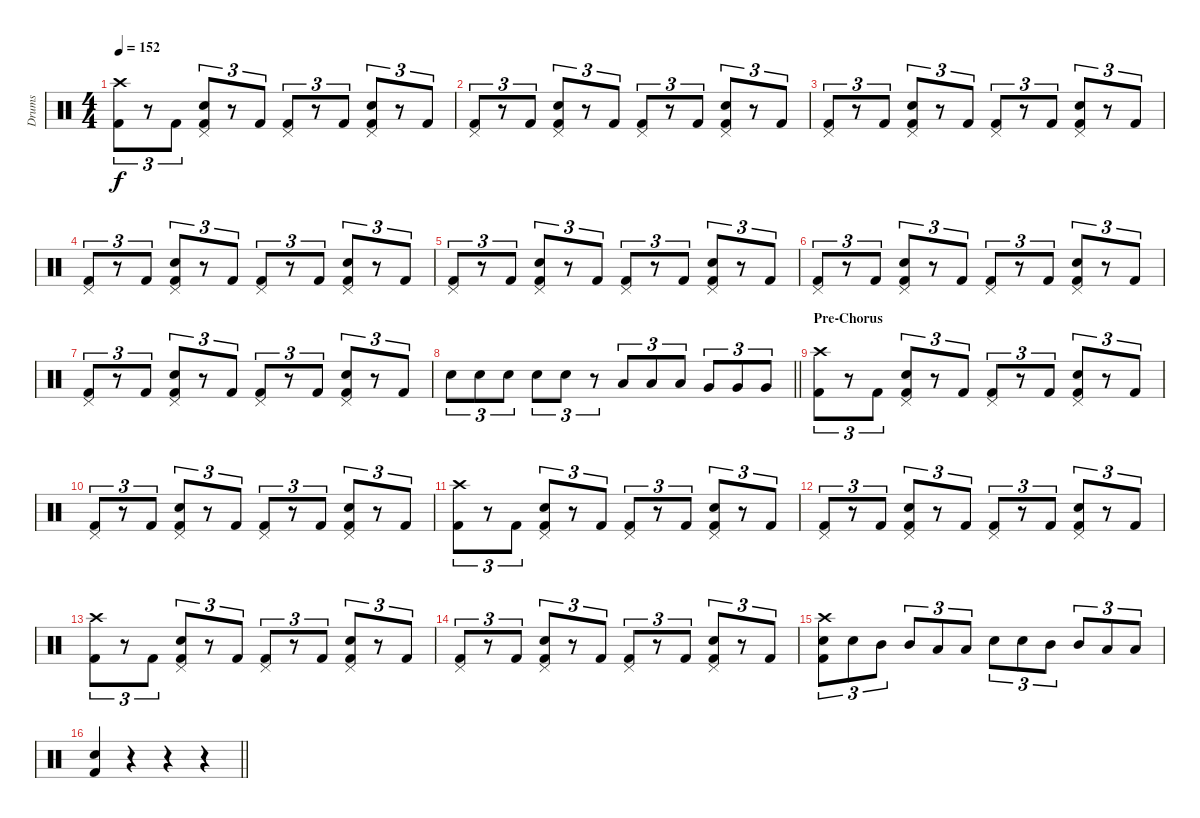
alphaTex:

\track ("Drums" "Drums") {instrument percussion}
\staff {score}
\articulation defaults
\ts (4 4)
\tempo 152
\clef neutral
\ks c
("Crash high (hit)" "Kick (hit) 2").8{tu (3 2) dy f} r.8{tu (3 2)} "Kick (hit) 2".8{tu (3 2)} ("Pedal Hi-Hat (hit)" "Snare (hit) 2" "Kick (hit) 2").8{tu (3 2)} r.8{tu (3 2)} "Kick (hit) 2".8{tu (3 2)} ("Pedal Hi-Hat (hit)" "Kick (hit) 2").8{tu (3 2)} r.8{tu (3 2)} "Kick (hit) 2".8{tu (3 2)} ("Pedal Hi-Hat (hit)" "Snare (hit) 2" "Kick (hit) 2").8{tu (3 2)} r.8{tu (3 2)} "Kick (hit) 2".8{tu (3 2)} |
("Pedal Hi-Hat (hit)" "Kick (hit) 2").8{tu (3 2)} r.8{tu (3 2)} "Kick (hit) 2".8{tu (3 2)} ("Pedal Hi-Hat (hit)" "Snare (hit) 2" "Kick (hit) 2").8{tu (3 2)} r.8{tu (3 2)} "Kick (hit) 2".8{tu (3 2)} ("Pedal Hi-Hat (hit)" "Kick (hit) 2").8{tu (3 2)} r.8{tu (3 2)} "Kick (hit) 2".8{tu (3 2)} ("Pedal Hi-Hat (hit)" "Snare (hit) 2" "Kick (hit) 2").8{tu (3 2)} r.8{tu (3 2)} "Kick (hit) 2".8{tu (3 2)} |
("Pedal Hi-Hat (hit)" "Kick (hit) 2").8{tu (3 2)} r.8{tu (3 2)} "Kick (hit) 2".8{tu (3 2)} ("Pedal Hi-Hat (hit)" "Snare (hit) 2" "Kick (hit) 2").8{tu (3 2)} r.8{tu (3 2)} "Kick (hit) 2".8{tu (3 2)} ("Pedal Hi-Hat (hit)" "Kick (hit) 2").8{tu (3 2)} r.8{tu (3 2)} "Kick (hit) 2".8{tu (3 2)} ("Pedal Hi-Hat (hit)" "Snare (hit) 2" "Kick (hit) 2").8{tu (3 2)} r.8{tu (3 2)} "Kick (hit) 2".8{tu (3 2)} |
("Pedal Hi-Hat (hit)" "Kick (hit) 2").8{tu (3 2)} r.8{tu (3 2)} "Kick (hit) 2".8{tu (3 2)} ("Pedal Hi-Hat (hit)" "Snare (hit) 2" "Kick (hit) 2").8{tu (3 2)} r.8{tu (3 2)} "Kick (hit) 2".8{tu (3 2)} ("Pedal Hi-Hat (hit)" "Kick (hit) 2").8{tu (3 2)} r.8{tu (3 2)} "Kick (hit) 2".8{tu (3 2)} ("Pedal Hi-Hat (hit)" "Snare (hit) 2" "Kick (hit) 2").8{tu (3 2)} r.8{tu (3 2)} "Kick (hit) 2".8{tu (3 2)} |
("Pedal Hi-Hat (hit)" "Kick (hit) 2").8{tu (3 2)} r.8{tu (3 2)} "Kick (hit) 2".8{tu (3 2)} ("Pedal Hi-Hat (hit)" "Snare (hit) 2" "Kick (hit) 2").8{tu (3 2)} r.8{tu (3 2)} "Kick (hit) 2".8{tu (3 2)} ("Pedal Hi-Hat (hit)" "Kick (hit) 2").8{tu (3 2)} r.8{tu (3 2)} "Kick (hit) 2".8{tu (3 2)} ("Pedal Hi-Hat (hit)" "Snare (hit) 2" "Kick (hit) 2").8{tu (3 2)} r.8{tu (3 2)} "Kick (hit) 2".8{tu (3 2)} |
("Pedal Hi-Hat (hit)" "Kick (hit) 2").8{tu (3 2)} r.8{tu (3 2)} "Kick (hit) 2".8{tu (3 2)} ("Pedal Hi-Hat (hit)" "Snare (hit) 2" "Kick (hit) 2").8{tu (3 2)} r.8{tu (3 2)} "Kick (hit) 2".8{tu (3 2)} ("Pedal Hi-Hat (hit)" "Kick (hit) 2").8{tu (3 2)} r.8{tu (3 2)} "Kick (hit) 2".8{tu (3 2)} ("Pedal Hi-Hat (hit)" "Snare (hit) 2" "Kick (hit) 2").8{tu (3 2)} r.8{tu (3 2)} "Kick (hit) 2".8{tu (3 2)} |
("Pedal Hi-Hat (hit)" "Kick (hit) 2").8{tu (3 2)} r.8{tu (3 2)} "Kick (hit) 2".8{tu (3 2)} ("Pedal Hi-Hat (hit)" "Snare (hit) 2" "Kick (hit) 2").8{tu (3 2)} r.8{tu (3 2)} "Kick (hit) 2".8{tu (3 2)} ("Pedal Hi-Hat (hit)" "Kick (hit) 2").8{tu (3 2)} r.8{tu (3 2)} "Kick (hit) 2".8{tu (3 2)} ("Pedal Hi-Hat (hit)" "Snare (hit) 2" "Kick (hit) 2").8{tu (3 2)} r.8{tu (3 2)} "Kick (hit) 2".8{tu (3 2)} |
\barLineRight lightlight "Snare (hit) 2".8{tu (3 2)} "Snare (hit) 2".8{tu (3 2)} "Snare (hit) 2".8{tu (3 2)} "Snare (hit) 2".8{tu (3 2)} "Snare (hit) 2".8{tu (3 2)}
r.8{tu (3 2)} "Low Tom (hit)".8{tu (3 2)} "Low Tom (hit)".8{tu (3 2)} "Low Tom (hit)".8{tu (3 2)} "Very Low Tom (hit)".8{tu (3 2)} "Very Low Tom (hit)".8{tu (3 2)} "Very Low Tom (hit)".8{tu (3 2)} |
\section ("" "Pre-Chorus")
("Crash high (hit)" "Kick (hit) 2").8{tu (3 2)} r.8{tu (3 2)} "Kick (hit) 2".8{tu (3 2)} ("Pedal Hi-Hat (hit)" "Snare (hit) 2" "Kick (hit) 2").8{tu (3 2)} r.8{tu (3 2)} "Kick (hit) 2".8{tu (3 2)} ("Pedal Hi-Hat (hit)" "Kick (hit) 2").8{tu (3 2)} r.8{tu (3 2)} "Kick (hit) 2".8{tu (3 2)} ("Pedal Hi-Hat (hit)" "Snare (hit) 2" "Kick (hit) 2").8{tu (3 2)} r.8{tu (3 2)} "Kick (hit) 2".8{tu (3 2)} |
("Pedal Hi-Hat (hit)" "Kick (hit) 2").8{tu (3 2)} r.8{tu (3 2)} "Kick (hit) 2".8{tu (3 2)} ("Pedal Hi-Hat (hit)" "Snare (hit) 2" "Kick (hit) 2").8{tu (3 2)} r.8{tu (3 2)} "Kick (hit) 2".8{tu (3 2)} ("Pedal Hi-Hat (hit)" "Kick (hit) 2").8{tu (3 2)} r.8{tu (3 2)} "Kick (hit) 2".8{tu (3 2)} ("Pedal Hi-Hat (hit)" "Snare (hit) 2" "Kick (hit) 2").8{tu (3 2)} r.8{tu (3 2)} "Kick (hit) 2".8{tu (3 2)} |
("Crash high (hit)" "Kick (hit) 2").8{tu (3 2)} r.8{tu (3 2)} "Kick (hit) 2".8{tu (3 2)} ("Pedal Hi-Hat (hit)" "Snare (hit) 2" "Kick (hit) 2").8{tu (3 2)} r.8{tu (3 2)} "Kick (hit) 2".8{tu (3 2)} ("Pedal Hi-Hat (hit)" "Kick (hit) 2").8{tu (3 2)} r.8{tu (3 2)} "Kick (hit) 2".8{tu (3 2)} ("Pedal Hi-Hat (hit)" "Snare (hit) 2" "Kick (hit) 2").8{tu (3 2)} r.8{tu (3 2)} "Kick (hit) 2".8{tu (3 2)} |
("Pedal Hi-Hat (hit)" "Kick (hit) 2").8{tu (3 2)} r.8{tu (3 2)} "Kick (hit) 2".8{tu (3 2)} ("Pedal Hi-Hat (hit)" "Snare (hit) 2" "Kick (hit) 2").8{tu (3 2)} r.8{tu (3 2)} "Kick (hit) 2".8{tu (3 2)} ("Pedal Hi-Hat (hit)" "Kick (hit) 2").8{tu (3 2)} r.8{tu (3 2)} "Kick (hit) 2".8{tu (3 2)} ("Pedal Hi-Hat (hit)" "Snare (hit) 2" "Kick (hit) 2").8{tu (3 2)} r.8{tu (3 2)} "Kick (hit) 2".8{tu (3 2)} |
("Crash high (hit)" "Kick (hit) 2").8{tu (3 2)} r.8{tu (3 2)} "Kick (hit) 2".8{tu (3 2)} ("Pedal Hi-Hat (hit)" "Snare (hit) 2" "Kick (hit) 2").8{tu (3 2)} r.8{tu (3 2)} "Kick (hit) 2".8{tu (3 2)} ("Pedal Hi-Hat (hit)" "Kick (hit) 2").8{tu (3 2)} r.8{tu (3 2)} "Kick (hit) 2".8{tu (3 2)} ("Pedal Hi-Hat (hit)" "Snare (hit) 2" "Kick (hit) 2").8{tu (3 2)} r.8{tu (3 2)} "Kick (hit) 2".8{tu (3 2)} |
("Pedal Hi-Hat (hit)" "Kick (hit) 2").8{tu (3 2)} r.8{tu (3 2)} "Kick (hit) 2".8{tu (3 2)} ("Pedal Hi-Hat (hit)" "Snare (hit) 2" "Kick (hit) 2").8{tu (3 2)} r.8{tu (3 2)} "Kick (hit) 2".8{tu (3 2)} ("Pedal Hi-Hat (hit)" "Kick (hit) 2").8{tu (3 2)} r.8{tu (3 2)} "Kick (hit) 2".8{tu (3 2)} ("Pedal Hi-Hat (hit)" "Snare (hit) 2" "Kick (hit) 2").8{tu (3 2)} r.8{tu (3 2)} "Kick (hit) 2".8{tu (3 2)} |
("Crash high (hit)" "Snare (hit) 2" "Kick (hit) 2").8{tu (3 2)} "Snare (hit) 2".8{tu (3 2)} "Mid Tom (hit)".8{tu (3 2)} "Mid Tom (hit)".8{tu (3 2)} "Low Tom (hit)".8{tu (3 2)} "Low Tom (hit)".8{tu (3 2)} "Snare (hit) 2".8{tu (3 2)} "Snare (hit) 2".8{tu (3 2)} "Mid Tom (hit)".8{tu (3 2)} "Mid Tom (hit)".8{tu (3 2)} "Low Tom (hit)".8{tu (3 2)} "Low Tom (hit)".8{tu (3 2)} |
\barLineRight lightlight
("Snare (hit) 2" "Kick (hit) 2").4 r.4 r.4 r.4
